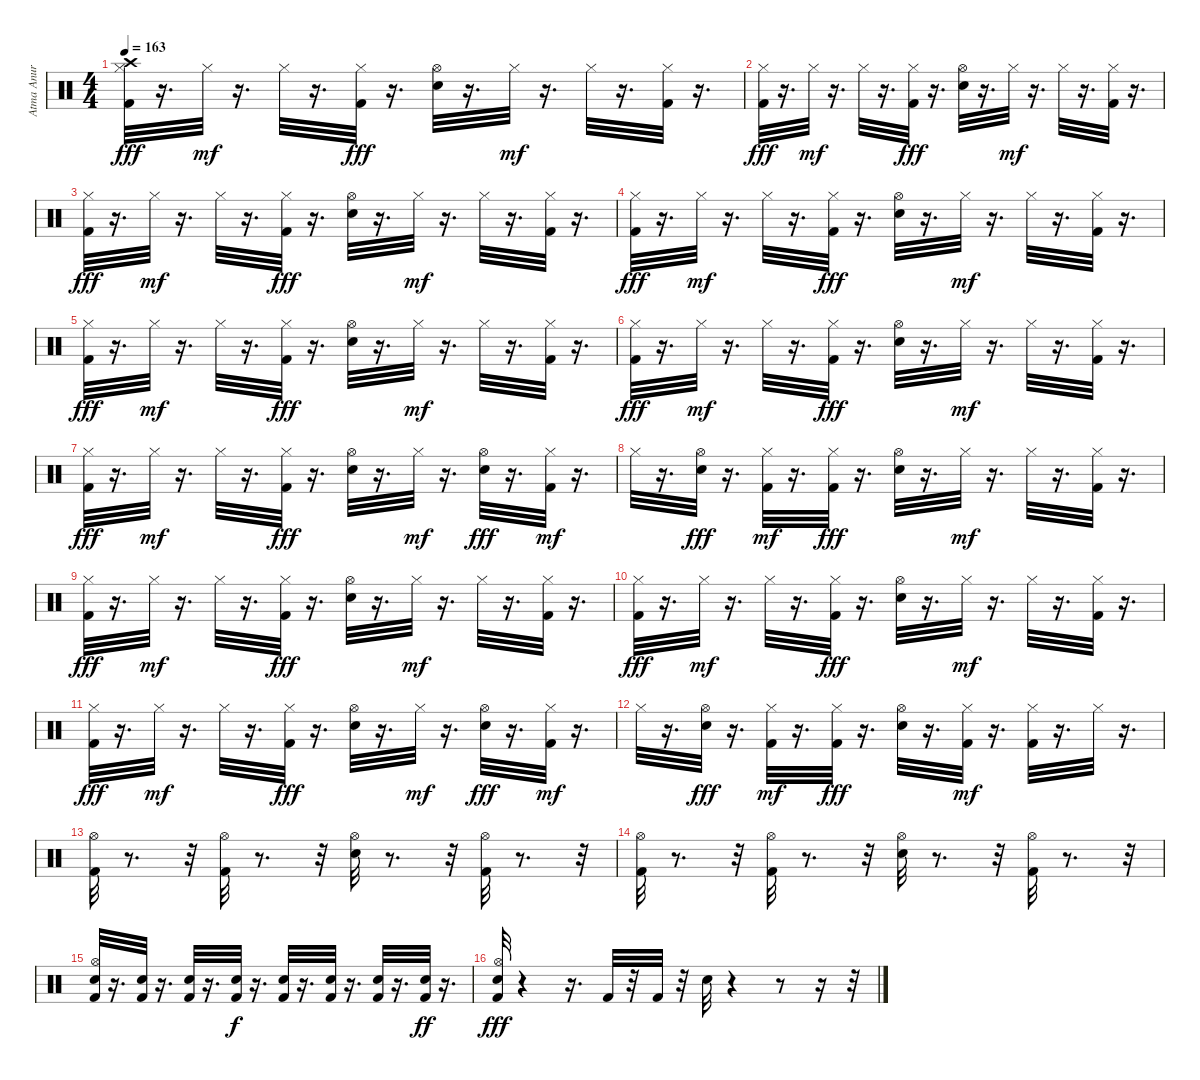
\track ("Atma Anur (Drums)" "Atma Anur ") {instrument percussion}
\staff {score}
\articulation defaults
\ts (4 4)
\tempo 163
\clef neutral
\ks c
("Hi-Hat (closed)" "Crash high (hit)" "Kick (hit) 2").32{dy fff} r.16{d} "Hi-Hat (closed)".32{dy mf} r.16{d} "Hi-Hat (closed)".32 r.16{d} ("Hi-Hat (closed)" "Kick (hit) 2").32{dy fff} r.16{d} ("Hi-Hat (open)" "Electric Snare (hit)").32 r.16{d} "Hi-Hat (closed)".32{dy mf} r.16{d} "Hi-Hat (closed)".32 r.16{d} ("Kick (hit) 2" "Hi-Hat (closed)").32 r.16{d} |
("Hi-Hat (closed)" "Kick (hit) 2").32{dy fff} r.16{d} "Hi-Hat (closed)".32{dy mf} r.16{d} "Hi-Hat (closed)".32 r.16{d} ("Hi-Hat (closed)" "Kick (hit) 2").32{dy fff} r.16{d} ("Hi-Hat (open)" "Electric Snare (hit)").32 r.16{d} "Hi-Hat (closed)".32{dy mf} r.16{d} "Hi-Hat (closed)".32 r.16{d} ("Kick (hit) 2" "Hi-Hat (closed)").32 r.16{d} |
("Hi-Hat (closed)" "Kick (hit) 2").32{dy fff} r.16{d} "Hi-Hat (closed)".32{dy mf} r.16{d} "Hi-Hat (closed)".32 r.16{d} ("Hi-Hat (closed)" "Kick (hit) 2").32{dy fff} r.16{d} ("Hi-Hat (open)" "Electric Snare (hit)").32 r.16{d} "Hi-Hat (closed)".32{dy mf} r.16{d} "Hi-Hat (closed)".32 r.16{d} ("Kick (hit) 2" "Hi-Hat (closed)").32 r.16{d} |
("Hi-Hat (closed)" "Kick (hit) 2").32{dy fff} r.16{d} "Hi-Hat (closed)".32{dy mf} r.16{d} "Hi-Hat (closed)".32 r.16{d} ("Hi-Hat (closed)" "Kick (hit) 2").32{dy fff} r.16{d} ("Hi-Hat (open)" "Electric Snare (hit)").32 r.16{d} "Hi-Hat (closed)".32{dy mf} r.16{d} "Hi-Hat (closed)".32 r.16{d} ("Kick (hit) 2" "Hi-Hat (closed)").32 r.16{d} |
("Hi-Hat (closed)" "Kick (hit) 2").32{dy fff} r.16{d} "Hi-Hat (closed)".32{dy mf} r.16{d} "Hi-Hat (closed)".32 r.16{d} ("Hi-Hat (closed)" "Kick (hit) 2").32{dy fff} r.16{d} ("Hi-Hat (open)" "Electric Snare (hit)").32 r.16{d} "Hi-Hat (closed)".32{dy mf} r.16{d} "Hi-Hat (closed)".32 r.16{d} ("Kick (hit) 2" "Hi-Hat (closed)").32 r.16{d} |
("Hi-Hat (closed)" "Kick (hit) 2").32{dy fff} r.16{d} "Hi-Hat (closed)".32{dy mf} r.16{d} "Hi-Hat (closed)".32 r.16{d} ("Hi-Hat (closed)" "Kick (hit) 2").32{dy fff} r.16{d} ("Hi-Hat (open)" "Electric Snare (hit)").32 r.16{d} "Hi-Hat (closed)".32{dy mf} r.16{d} "Hi-Hat (closed)".32 r.16{d} ("Kick (hit) 2" "Hi-Hat (closed)").32 r.16{d} |
("Hi-Hat (closed)" "Kick (hit) 2").32{dy fff} r.16{d} "Hi-Hat (closed)".32{dy mf} r.16{d} "Hi-Hat (closed)".32 r.16{d} ("Hi-Hat (closed)" "Kick (hit) 2").32{dy fff} r.16{d} ("Hi-Hat (open)" "Electric Snare (hit)").32 r.16{d} "Hi-Hat (closed)".32{dy mf} r.16{d} ("Hi-Hat (open)" "Electric Snare (hit)").32{dy fff} r.16{d} ("Kick (hit) 2" "Hi-Hat (closed)").32{dy mf} r.16{d} |
"Hi-Hat (closed)".32 r.16{d} ("Hi-Hat (open)" "Electric Snare (hit)").32{dy fff} r.16{d} ("Kick (hit) 2" "Hi-Hat (closed)").32{dy mf} r.16{d} ("Hi-Hat (closed)" "Kick (hit) 2").32{dy fff} r.16{d} ("Hi-Hat (open)" "Electric Snare (hit)").32 r.16{d} "Hi-Hat (closed)".32{dy mf} r.16{d} "Hi-Hat (closed)".32 r.16{d} ("Kick (hit) 2" "Hi-Hat (closed)").32 r.16{d} |
("Hi-Hat (closed)" "Kick (hit) 2").32{dy fff} r.16{d} "Hi-Hat (closed)".32{dy mf} r.16{d} "Hi-Hat (closed)".32 r.16{d} ("Hi-Hat (closed)" "Kick (hit) 2").32{dy fff} r.16{d} ("Hi-Hat (open)" "Electric Snare (hit)").32 r.16{d} "Hi-Hat (closed)".32{dy mf} r.16{d} "Hi-Hat (closed)".32 r.16{d} ("Kick (hit) 2" "Hi-Hat (closed)").32 r.16{d} |
("Hi-Hat (closed)" "Kick (hit) 2").32{dy fff} r.16{d} "Hi-Hat (closed)".32{dy mf} r.16{d} "Hi-Hat (closed)".32 r.16{d} ("Hi-Hat (closed)" "Kick (hit) 2").32{dy fff} r.16{d} ("Hi-Hat (open)" "Electric Snare (hit)").32 r.16{d} "Hi-Hat (closed)".32{dy mf} r.16{d} "Hi-Hat (closed)".32 r.16{d} ("Kick (hit) 2" "Hi-Hat (closed)").32 r.16{d} |
("Hi-Hat (closed)" "Kick (hit) 2").32{dy fff} r.16{d} "Hi-Hat (closed)".32{dy mf} r.16{d} "Hi-Hat (closed)".32 r.16{d} ("Hi-Hat (closed)" "Kick (hit) 2").32{dy fff} r.16{d} ("Hi-Hat (open)" "Electric Snare (hit)").32 r.16{d} "Hi-Hat (closed)".32{dy mf} r.16{d} ("Hi-Hat (open)" "Electric Snare (hit)").32{dy fff} r.16{d} ("Kick (hit) 2" "Hi-Hat (closed)").32{dy mf} r.16{d} |
"Hi-Hat (closed)".32 r.16{d} ("Hi-Hat (open)" "Electric Snare (hit)").32{dy fff} r.16{d} ("Kick (hit) 2" "Hi-Hat (closed)").32{dy mf} r.16{d} ("Hi-Hat (closed)" "Kick (hit) 2").32{dy fff} r.16{d} ("Hi-Hat (open)" "Electric Snare (hit)").32 r.16{d} ("Kick (hit) 2" "Hi-Hat (closed)").32{dy mf} r.16{d} ("Kick (hit) 2" "Hi-Hat (closed)").32 r.16{d} "Hi-Hat (closed)".32 r.16{d} |
("Hi-Hat (open)" "Kick (hit) 2").32 r.8{d} r.32 ("Hi-Hat (open)" "Kick (hit) 2").32 r.8{d} r.32 ("Electric Snare (hit)" "Hi-Hat (open)").32 r.8{d} r.32 ("Hi-Hat (open)" "Kick (hit) 2").32 r.8{d} r.32 |
("Hi-Hat (open)" "Kick (hit) 2").32 r.8{d} r.32 ("Hi-Hat (open)" "Kick (hit) 2").32 r.8{d} r.32 ("Electric Snare (hit)" "Hi-Hat (open)").32 r.8{d} r.32 ("Hi-Hat (open)" "Kick (hit) 2").32 r.8{d} r.32 |
("Kick (hit) 2" "Electric Snare (hit)" "Hi-Hat (open)").32 r.16{d} ("Kick (hit) 2" "Electric Snare (hit)").32 r.16{d} ("Kick (hit) 2" "Electric Snare (hit)").32 r.16{d} ("Kick (hit) 2" "Electric Snare (hit)").32{dy f} r.16{d} ("Kick (hit) 2" "Electric Snare (hit)").32 r.16{d} ("Kick (hit) 2" "Electric Snare (hit)").32 r.16{d} ("Kick (hit) 2" "Electric Snare (hit)").32 r.16{d} ("Kick (hit) 2" "Electric Snare (hit)").32{dy ff} r.16{d} |
("Hi-Hat (open)" "Kick (hit) 2" "Electric Snare (hit)").32{dy fff} r.4 r.16{d} "Kick (hit) 2".32 r.32 "Kick (hit) 2".32 r.32 "Electric Snare (hit)".32 r.4 r.8 r.16 r.32
